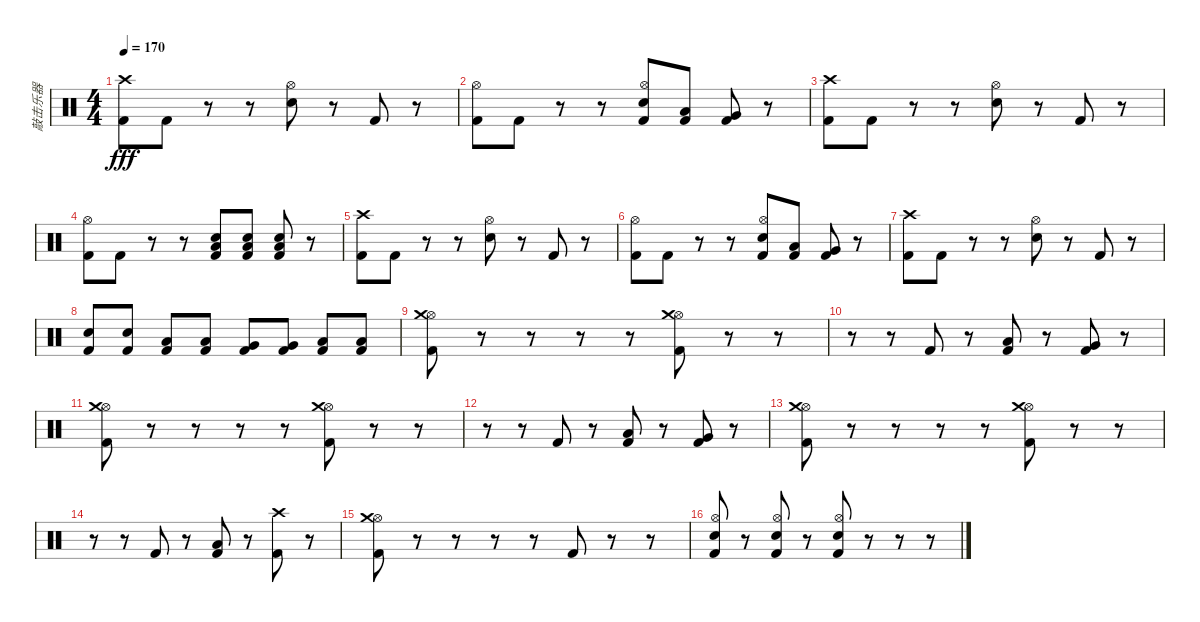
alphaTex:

\track ("敲击乐器" "敲击乐器") {instrument percussion}
\staff {score}
\articulation defaults
\ts (4 4)
\tempo 170
\clef neutral
\ks c
("Crash high (hit)" "Kick (hit) 2").8{dy fff} "Kick (hit) 2".8 r.8 r.8 ("Hi-Hat (open)" "Electric Snare (hit)").8 r.8 "Kick (hit) 2".8 r.8 |
("Hi-Hat (open)" "Kick (hit) 2").8 "Kick (hit) 2".8 r.8 r.8 ("Hi-Hat (open)" "Electric Snare (hit)" "Kick (hit) 2").8 ("Low Tom (hit)" "Kick (hit) 2").8 ("Very Low Tom (hit)" "Kick (hit) 2").8 r.8 |
("Crash high (hit)" "Kick (hit) 2").8 "Kick (hit) 2".8 r.8 r.8 ("Hi-Hat (open)" "Electric Snare (hit)").8 r.8 "Kick (hit) 2".8 r.8 |
("Hi-Hat (open)" "Kick (hit) 2").8 "Kick (hit) 2".8 r.8 r.8 ("Electric Snare (hit)" "Low Floor Tom (hit)" "Kick (hit) 2").8 ("Electric Snare (hit)" "Low Floor Tom (hit)" "Kick (hit) 2").8 ("Electric Snare (hit)" "Low Floor Tom (hit)" "Kick (hit) 2").8 r.8 |
("Crash high (hit)" "Kick (hit) 2").8 "Kick (hit) 2".8 r.8 r.8 ("Hi-Hat (open)" "Electric Snare (hit)").8 r.8 "Kick (hit) 2".8 r.8 |
("Hi-Hat (open)" "Kick (hit) 2").8 "Kick (hit) 2".8 r.8 r.8 ("Hi-Hat (open)" "Electric Snare (hit)" "Kick (hit) 2").8 ("Low Tom (hit)" "Kick (hit) 2").8 ("Very Low Tom (hit)" "Kick (hit) 2").8 r.8 |
("Crash high (hit)" "Kick (hit) 2").8 "Kick (hit) 2".8 r.8 r.8 ("Hi-Hat (open)" "Electric Snare (hit)").8 r.8 "Kick (hit) 2".8 r.8 |
("Electric Snare (hit)" "Kick (hit) 2").8 ("Electric Snare (hit)" "Kick (hit) 2").8 ("Low Tom (hit)" "Kick (hit) 2").8 ("Low Tom (hit)" "Kick (hit) 2").8 ("Very Low Tom (hit)" "Kick (hit) 2").8 ("Very Low Tom (hit)" "Kick (hit) 2").8 ("Low Floor Tom (hit)" "Kick (hit) 2").8 ("Low Floor Tom (hit)" "Kick (hit) 2").8 |
("Hi-Hat (open)" "Crash medium (hit)" "Kick (hit) 2").8 r.8 r.8 r.8 r.8 ("Hi-Hat (open)" "Crash medium (hit)" "Kick (hit) 2").8 r.8 r.8 |
r.8 r.8 "Kick (hit) 2".8 r.8 ("Low Tom (hit)" "Kick (hit) 2").8 r.8 ("Very Low Tom (hit)" "Kick (hit) 2").8 r.8 |
("Hi-Hat (open)" "Crash medium (hit)" "Kick (hit) 2").8 r.8 r.8 r.8 r.8 ("Hi-Hat (open)" "Crash medium (hit)" "Kick (hit) 2").8 r.8 r.8 |
r.8 r.8 "Kick (hit) 2".8 r.8 ("Low Tom (hit)" "Kick (hit) 2").8 r.8 ("Very Low Tom (hit)" "Kick (hit) 2").8 r.8 |
("Hi-Hat (open)" "Crash medium (hit)" "Kick (hit) 2").8 r.8 r.8 r.8 r.8 ("Hi-Hat (open)" "Crash medium (hit)" "Kick (hit) 2").8 r.8 r.8 |
r.8 r.8 "Kick (hit) 2".8 r.8 ("Low Tom (hit)" "Kick (hit) 2").8 r.8 ("Crash high (hit)" "Kick (hit) 2").8 r.8 |
("Hi-Hat (open)" "Crash medium (hit)" "Kick (hit) 2").8 r.8 r.8 r.8 r.8 "Kick (hit) 2".8 r.8 r.8 |
("Hi-Hat (open)" "Electric Snare (hit)" "Kick (hit) 2").8 r.8 ("Hi-Hat (open)" "Electric Snare (hit)" "Kick (hit) 2").8 r.8 ("Hi-Hat (open)" "Electric Snare (hit)" "Kick (hit) 2").8 r.8 r.8 r.8
